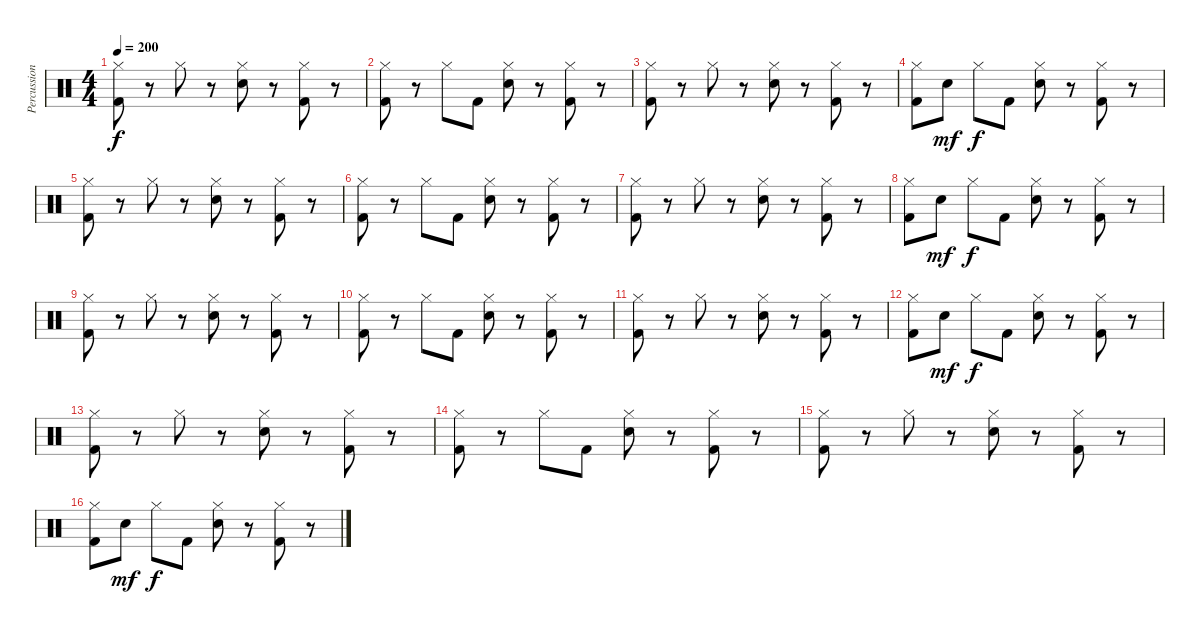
\track ("Percussion" "Percussion") {instrument percussion}
\staff {score}
\articulation defaults
\ts (4 4)
\tempo 200
\clef neutral
\ks c
("Kick (hit) 2" "Hi-Hat (closed)").8{dy f} r.8 "Hi-Hat (closed)".8 r.8 ("Snare (hit) 2" "Hi-Hat (closed)").8 r.8 ("Hi-Hat (closed)" "Kick (hit) 2").8 r.8 |
("Kick (hit) 2" "Hi-Hat (closed)").8 r.8 "Hi-Hat (closed)".8 "Kick (hit) 2".8 ("Snare (hit) 2" "Hi-Hat (closed)").8 r.8 ("Kick (hit) 2" "Hi-Hat (closed)").8 r.8 |
("Kick (hit) 2" "Hi-Hat (closed)").8 r.8 "Hi-Hat (closed)".8 r.8 ("Snare (hit) 2" "Hi-Hat (closed)").8 r.8 ("Hi-Hat (closed)" "Kick (hit) 2").8 r.8 |
("Kick (hit) 2" "Hi-Hat (closed)").8 "Snare (hit) 2".8{dy mf} "Hi-Hat (closed)".8{dy f} "Kick (hit) 2".8 ("Snare (hit) 2" "Hi-Hat (closed)").8 r.8 ("Kick (hit) 2" "Hi-Hat (closed)").8 r.8 |
("Kick (hit) 2" "Hi-Hat (closed)").8 r.8 "Hi-Hat (closed)".8 r.8 ("Snare (hit) 2" "Hi-Hat (closed)").8 r.8 ("Hi-Hat (closed)" "Kick (hit) 2").8 r.8 |
("Kick (hit) 2" "Hi-Hat (closed)").8 r.8 "Hi-Hat (closed)".8 "Kick (hit) 2".8 ("Snare (hit) 2" "Hi-Hat (closed)").8 r.8 ("Kick (hit) 2" "Hi-Hat (closed)").8 r.8 |
("Kick (hit) 2" "Hi-Hat (closed)").8 r.8 "Hi-Hat (closed)".8 r.8 ("Snare (hit) 2" "Hi-Hat (closed)").8 r.8 ("Hi-Hat (closed)" "Kick (hit) 2").8 r.8 |
("Kick (hit) 2" "Hi-Hat (closed)").8 "Snare (hit) 2".8{dy mf} "Hi-Hat (closed)".8{dy f} "Kick (hit) 2".8 ("Snare (hit) 2" "Hi-Hat (closed)").8 r.8 ("Kick (hit) 2" "Hi-Hat (closed)").8 r.8 |
("Kick (hit) 2" "Hi-Hat (closed)").8 r.8 "Hi-Hat (closed)".8 r.8 ("Snare (hit) 2" "Hi-Hat (closed)").8 r.8 ("Hi-Hat (closed)" "Kick (hit) 2").8 r.8 |
("Kick (hit) 2" "Hi-Hat (closed)").8 r.8 "Hi-Hat (closed)".8 "Kick (hit) 2".8 ("Snare (hit) 2" "Hi-Hat (closed)").8 r.8 ("Kick (hit) 2" "Hi-Hat (closed)").8 r.8 |
("Kick (hit) 2" "Hi-Hat (closed)").8 r.8 "Hi-Hat (closed)".8 r.8 ("Snare (hit) 2" "Hi-Hat (closed)").8 r.8 ("Hi-Hat (closed)" "Kick (hit) 2").8 r.8 |
("Kick (hit) 2" "Hi-Hat (closed)").8 "Snare (hit) 2".8{dy mf} "Hi-Hat (closed)".8{dy f} "Kick (hit) 2".8 ("Snare (hit) 2" "Hi-Hat (closed)").8 r.8 ("Kick (hit) 2" "Hi-Hat (closed)").8 r.8 |
("Kick (hit) 2" "Hi-Hat (closed)").8 r.8 "Hi-Hat (closed)".8 r.8 ("Snare (hit) 2" "Hi-Hat (closed)").8 r.8 ("Hi-Hat (closed)" "Kick (hit) 2").8 r.8 |
("Kick (hit) 2" "Hi-Hat (closed)").8 r.8 "Hi-Hat (closed)".8 "Kick (hit) 2".8 ("Snare (hit) 2" "Hi-Hat (closed)").8 r.8 ("Kick (hit) 2" "Hi-Hat (closed)").8 r.8 |
("Kick (hit) 2" "Hi-Hat (closed)").8 r.8 "Hi-Hat (closed)".8 r.8 ("Snare (hit) 2" "Hi-Hat (closed)").8 r.8 ("Hi-Hat (closed)" "Kick (hit) 2").8 r.8 |
("Kick (hit) 2" "Hi-Hat (closed)").8 "Snare (hit) 2".8{dy mf} "Hi-Hat (closed)".8{dy f} "Kick (hit) 2".8 ("Snare (hit) 2" "Hi-Hat (closed)").8 r.8 ("Kick (hit) 2" "Hi-Hat (closed)").8 r.8
